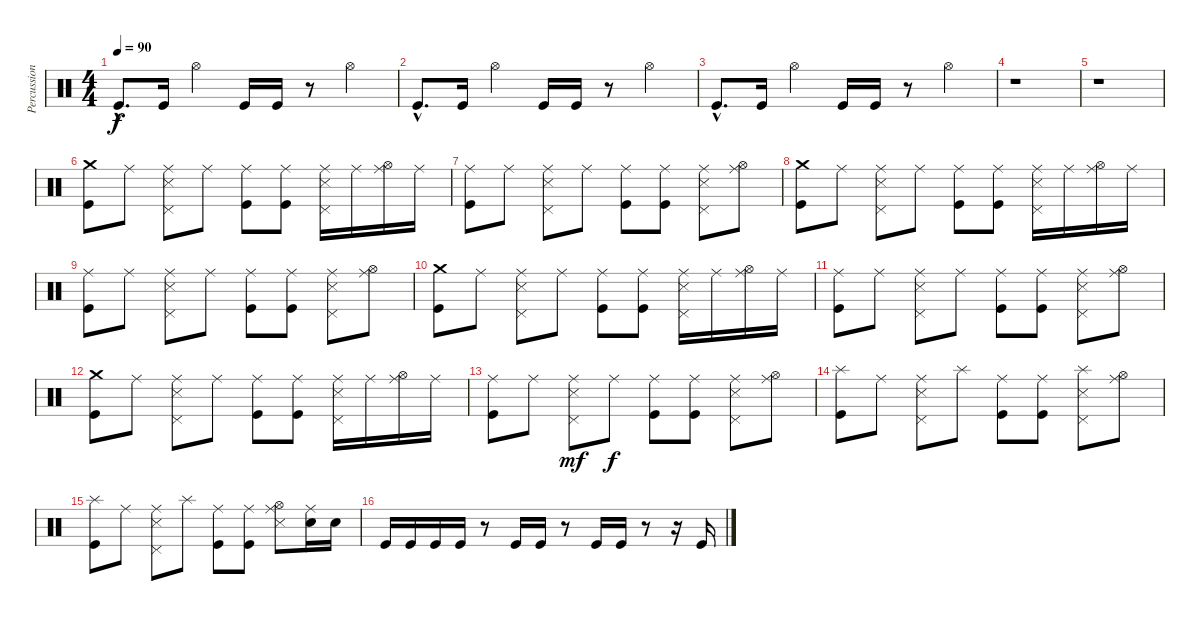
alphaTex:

\track ("Percussion" "Percussion") {instrument percussion}
\staff {score}
\articulation defaults
\ts (4 4)
\tempo 90
\clef neutral
\ks c "Kick (hit)"{hac}.8{d dy f} "Kick (hit)".16 "Hi-Hat (open)".4 "Kick (hit)".16 "Kick (hit)".16
r.8 "Hi-Hat (open)".4 |
"Kick (hit)"{hac}.8{d} "Kick (hit)".16 "Hi-Hat (open)".4 "Kick (hit)".16 "Kick (hit)".16 r.8 "Hi-Hat (open)".4 |
"Kick (hit)"{hac}.8{d} "Kick (hit)".16 "Hi-Hat (open)".4 "Kick (hit)".16 "Kick (hit)".16 r.8 "Hi-Hat (open)".4 |
r.1 |
r.1 |
("Crash medium (hit)" "Kick (hit)").8 "Ride (middle)".8 ("Ride (middle)" "Pedal Hi-Hat (hit)" "Snare (side stick) 3").8 "Ride (middle)".8 ("Ride (middle)" "Kick (hit)").8 ("Ride (middle)" "Kick (hit)").8 ("Ride (middle)" "Pedal Hi-Hat (hit)" "Snare (side stick) 3").16 "Ride (middle)".16 ("Ride (middle)" "Hi-Hat (open)").16 "Ride (middle)".16 |
("Ride (middle)" "Kick (hit)").8 "Ride (middle)".8 ("Ride (middle)" "Pedal Hi-Hat (hit)" "Snare (side stick) 3").8 "Ride (middle)".8 ("Ride (middle)" "Kick (hit)").8 ("Ride (middle)" "Kick (hit)").8 ("Ride (middle)" "Pedal Hi-Hat (hit)" "Snare (side stick) 3").8 ("Ride (middle)" "Hi-Hat (open)").8 |
("Crash medium (hit)" "Kick (hit)").8 "Ride (middle)".8 ("Ride (middle)" "Pedal Hi-Hat (hit)" "Snare (side stick) 3").8 "Ride (middle)".8 ("Ride (middle)" "Kick (hit)").8 ("Ride (middle)" "Kick (hit)").8 ("Ride (middle)" "Pedal Hi-Hat (hit)" "Snare (side stick) 3").16 "Ride (middle)".16 ("Ride (middle)" "Hi-Hat (open)").16 "Ride (middle)".16 |
("Ride (middle)" "Kick (hit)").8 "Ride (middle)".8 ("Ride (middle)" "Pedal Hi-Hat (hit)" "Snare (side stick) 3").8 "Ride (middle)".8 ("Ride (middle)" "Kick (hit)").8 ("Ride (middle)" "Kick (hit)").8 ("Ride (middle)" "Pedal Hi-Hat (hit)" "Snare (side stick) 3").8 ("Ride (middle)" "Hi-Hat (open)").8 |
("Crash medium (hit)" "Kick (hit)").8 "Ride (middle)".8 ("Ride (middle)" "Pedal Hi-Hat (hit)" "Snare (side stick) 3").8 "Ride (middle)".8 ("Ride (middle)" "Kick (hit)").8 ("Ride (middle)" "Kick (hit)").8 ("Ride (middle)" "Pedal Hi-Hat (hit)" "Snare (side stick) 3").16 "Ride (middle)".16 ("Ride (middle)" "Hi-Hat (open)").16 "Ride (middle)".16 |
("Ride (middle)" "Kick (hit)").8 "Ride (middle)".8 ("Ride (middle)" "Pedal Hi-Hat (hit)" "Snare (side stick) 3").8 "Ride (middle)".8 ("Ride (middle)" "Kick (hit)").8 ("Ride (middle)" "Kick (hit)").8 ("Ride (middle)" "Pedal Hi-Hat (hit)" "Snare (side stick) 3").8 ("Ride (middle)" "Hi-Hat (open)").8 |
("Crash medium (hit)" "Kick (hit)").8 "Ride (middle)".8 ("Ride (middle)" "Pedal Hi-Hat (hit)" "Snare (side stick) 3").8 "Ride (middle)".8 ("Ride (middle)" "Kick (hit)").8 ("Ride (middle)" "Kick (hit)").8 ("Ride (middle)" "Pedal Hi-Hat (hit)" "Snare (side stick) 3").16 "Ride (middle)".16 ("Ride (middle)" "Hi-Hat (open)").16 "Ride (middle)".16 |
("Ride (middle)" "Kick (hit)").8 "Ride (middle)".8 ("Ride (middle)" "Pedal Hi-Hat (hit)" "Snare (side stick) 3").8{dy mf} "Ride (middle)".8{dy f} ("Ride (middle)" "Kick (hit)").8 ("Ride (middle)" "Kick (hit)").8 ("Ride (middle)" "Pedal Hi-Hat (hit)" "Snare (side stick) 3").8 ("Ride (middle)" "Hi-Hat (open)").8 |
("Splash (hit)" "Kick (hit)").8 "Ride (middle)".8 ("Ride (middle)" "Pedal Hi-Hat (hit)" "Snare (side stick) 3").8 "Splash (hit)".8 ("Ride (middle)" "Kick (hit)").8 ("Ride (middle)" "Kick (hit)").8 ("Splash (hit)" "Pedal Hi-Hat (hit)" "Snare (side stick) 3").8 ("Ride (middle)" "Hi-Hat (open)").8 |
("Splash (hit)" "Kick (hit)").8 "Ride (middle)".8 ("Ride (middle)" "Pedal Hi-Hat (hit)" "Snare (side stick) 3").8 "Splash (hit)".8 ("Ride (middle)" "Kick (hit)").8 ("Ride (middle)" "Kick (hit)").8 ("Ride (middle)" "Hi-Hat (open)" "Snare (side stick) 3").8 ("Ride (middle)" "Electric Snare (hit)").16 "Electric Snare (hit)".16 |
"Kick (hit)".16 "Kick (hit)".16 "Kick (hit)".16 "Kick (hit)".16 r.8 "Kick (hit)".16 "Kick (hit)".16 r.8 "Kick (hit)".16 "Kick (hit)".16 r.8 r.16 "Kick (hit)".16
